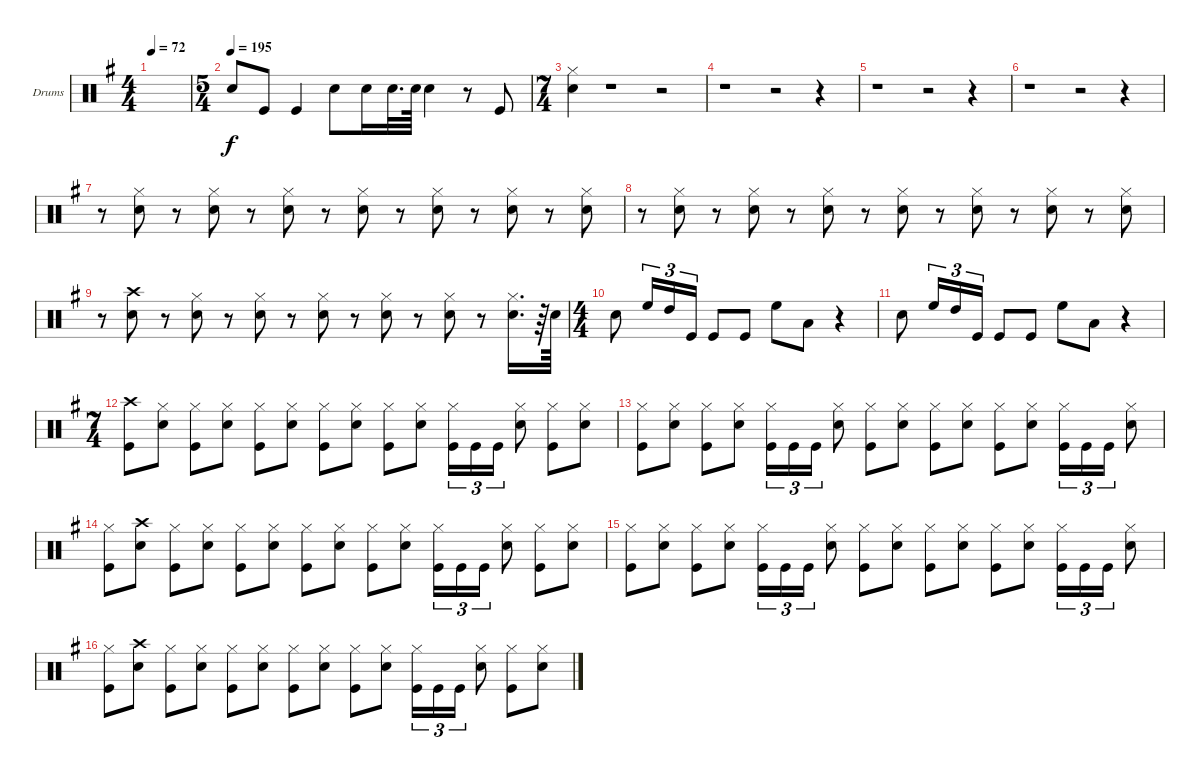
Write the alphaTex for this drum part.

\defaultSystemsLayout 4
\bracketExtendMode groupsimilarinstruments
\firstSystemTrackNameOrientation horizontal
\otherSystemsTrackNameOrientation horizontal
\track ("Drumkit" "Drums") {instrument percussion}
\staff {score}
\articulation defaults
\ts (4 4)
\tempo 72
\clef neutral
\ks g
|
\ts (5 4)
\tempo (195)
"Snare (hit) 2".8 "Kick (hit)".8 "Kick (hit)".4 "Snare (hit) 2".8 "Snare (hit) 2".16 "Snare (hit) 2".32{d} "Snare (hit) 2".64 "Snare (hit) 2".4 r.8 "Kick (hit)".8 |
\ts (7 4)
("Snare (hit) 2" "Hi-Hat (closed)").4 r.1 r.2 |
r.1 r.2 r.4 |
r.1 r.2 r.4 |
r.1 r.2 r.4 |
r.8 ("Snare (hit) 2" "Hi-Hat (closed)").8 r.8 ("Snare (hit) 2" "Hi-Hat (closed)").8 r.8 ("Snare (hit) 2" "Hi-Hat (closed)").8 r.8 ("Snare (hit) 2" "Hi-Hat (closed)").8 r.8 ("Snare (hit) 2" "Hi-Hat (closed)").8 r.8 ("Snare (hit) 2" "Hi-Hat (closed)").8 r.8 ("Snare (hit) 2" "Hi-Hat (closed)").8 |
r.8 ("Snare (hit) 2" "Hi-Hat (closed)").8 r.8 ("Snare (hit) 2" "Hi-Hat (closed)").8 r.8 ("Snare (hit) 2" "Hi-Hat (closed)").8 r.8 ("Snare (hit) 2" "Hi-Hat (closed)").8 r.8 ("Snare (hit) 2" "Hi-Hat (closed)").8 r.8 ("Snare (hit) 2" "Hi-Hat (closed)").8 r.8 ("Snare (hit) 2" "Hi-Hat (closed)").8 |
r.8 ("Crash high (hit)" "Snare (hit) 2").8 r.8 ("Snare (hit) 2" "Hi-Hat (closed)").8 r.8 ("Snare (hit) 2" "Hi-Hat (closed)").8 r.8 ("Snare (hit) 2" "Hi-Hat (closed)").8 r.8 ("Snare (hit) 2" "Hi-Hat (closed)").8 r.8 ("Snare (hit) 2" "Hi-Hat (closed)").8 r.8 ("Snare (hit) 2" "Hi-Hat (closed)").16{d} r.64 "Snare (hit) 2".64 |
\ts (4 4)
"Snare (hit) 2".8 "High Floor Tom (hit)".16{tu (3 2)} "High Tom (hit)".16{tu (3 2)} "Kick (hit)".16{tu (3 2)} "Kick (hit)".8 "Kick (hit)".8 "High Floor Tom (hit)".8 "Low Tom (hit)".8 r.4 |
"Snare (hit) 2".8 "High Floor Tom (hit)".16{tu (3 2)} "High Tom (hit)".16{tu (3 2)} "Kick (hit)".16{tu (3 2)} "Kick (hit)".8 "Kick (hit)".8 "High Floor Tom (hit)".8 "Low Tom (hit)".8 r.4 |
\ts (7 4)
("Crash high (hit)" "Kick (hit)").8 ("Snare (hit) 2" "Hi-Hat (closed)").8 ("Hi-Hat (closed)" "Kick (hit)").8 ("Snare (hit) 2" "Hi-Hat (closed)").8 ("Hi-Hat (closed)" "Kick (hit)").8 ("Snare (hit) 2" "Hi-Hat (closed)").8 ("Hi-Hat (closed)" "Kick (hit)").8 ("Snare (hit) 2" "Hi-Hat (closed)").8 ("Hi-Hat (closed)" "Kick (hit)").8 ("Snare (hit) 2" "Hi-Hat (closed)").8 ("Hi-Hat (closed)" "Kick (hit)").16{tu (3 2)} "Kick (hit)".16{tu (3 2)} "Kick (hit)".16{tu (3 2)} ("Snare (hit) 2" "Hi-Hat (closed)").8 ("Hi-Hat (closed)" "Kick (hit)").8 ("Snare (hit) 2" "Hi-Hat (closed)").8 |
("Hi-Hat (closed)" "Kick (hit)").8 ("Snare (hit) 2" "Hi-Hat (closed)").8 ("Hi-Hat (closed)" "Kick (hit)").8 ("Snare (hit) 2" "Hi-Hat (closed)").8 ("Hi-Hat (closed)" "Kick (hit)").16{tu (3 2)} "Kick (hit)".16{tu (3 2)} "Kick (hit)".16{tu (3 2)} ("Snare (hit) 2" "Hi-Hat (closed)").8 ("Hi-Hat (closed)" "Kick (hit)").8 ("Snare (hit) 2" "Hi-Hat (closed)").8 ("Hi-Hat (closed)" "Kick (hit)").8 ("Snare (hit) 2" "Hi-Hat (closed)").8 ("Kick (hit)" "Hi-Hat (closed)").8 ("Snare (hit) 2" "Hi-Hat (closed)").8 ("Kick (hit)" "Hi-Hat (closed)").16{tu (3 2)} "Kick (hit)".16{tu (3 2)} "Kick (hit)".16{tu (3 2)} ("Snare (hit) 2" "Hi-Hat (closed)").8 |
("Hi-Hat (closed)" "Kick (hit)").8 ("Crash high (hit)" "Snare (hit) 2").8 ("Hi-Hat (closed)" "Kick (hit)").8 ("Snare (hit) 2" "Hi-Hat (closed)").8 ("Hi-Hat (closed)" "Kick (hit)").8 ("Snare (hit) 2" "Hi-Hat (closed)").8 ("Hi-Hat (closed)" "Kick (hit)").8 ("Snare (hit) 2" "Hi-Hat (closed)").8 ("Hi-Hat (closed)" "Kick (hit)").8 ("Snare (hit) 2" "Hi-Hat (closed)").8 ("Hi-Hat (closed)" "Kick (hit)").16{tu (3 2)} "Kick (hit)".16{tu (3 2)} "Kick (hit)".16{tu (3 2)} ("Snare (hit) 2" "Hi-Hat (closed)").8 ("Hi-Hat (closed)" "Kick (hit)").8 ("Snare (hit) 2" "Hi-Hat (closed)").8 |
("Hi-Hat (closed)" "Kick (hit)").8 ("Snare (hit) 2" "Hi-Hat (closed)").8 ("Hi-Hat (closed)" "Kick (hit)").8 ("Snare (hit) 2" "Hi-Hat (closed)").8 ("Hi-Hat (closed)" "Kick (hit)").16{tu (3 2)} "Kick (hit)".16{tu (3 2)} "Kick (hit)".16{tu (3 2)} ("Snare (hit) 2" "Hi-Hat (closed)").8 ("Hi-Hat (closed)" "Kick (hit)").8 ("Snare (hit) 2" "Hi-Hat (closed)").8 ("Hi-Hat (closed)" "Kick (hit)").8 ("Snare (hit) 2" "Hi-Hat (closed)").8 ("Kick (hit)" "Hi-Hat (closed)").8 ("Snare (hit) 2" "Hi-Hat (closed)").8 ("Kick (hit)" "Hi-Hat (closed)").16{tu (3 2)} "Kick (hit)".16{tu (3 2)} "Kick (hit)".16{tu (3 2)} ("Snare (hit) 2" "Hi-Hat (closed)").8 |
("Hi-Hat (closed)" "Kick (hit)").8 ("Crash high (hit)" "Snare (hit) 2").8 ("Hi-Hat (closed)" "Kick (hit)").8 ("Snare (hit) 2" "Hi-Hat (closed)").8 ("Hi-Hat (closed)" "Kick (hit)").8 ("Snare (hit) 2" "Hi-Hat (closed)").8 ("Hi-Hat (closed)" "Kick (hit)").8 ("Snare (hit) 2" "Hi-Hat (closed)").8 ("Hi-Hat (closed)" "Kick (hit)").8 ("Snare (hit) 2" "Hi-Hat (closed)").8 ("Hi-Hat (closed)" "Kick (hit)").16{tu (3 2)} "Kick (hit)".16{tu (3 2)} "Kick (hit)".16{tu (3 2)} ("Snare (hit) 2" "Hi-Hat (closed)").8 ("Hi-Hat (closed)" "Kick (hit)").8 ("Snare (hit) 2" "Hi-Hat (closed)").8
